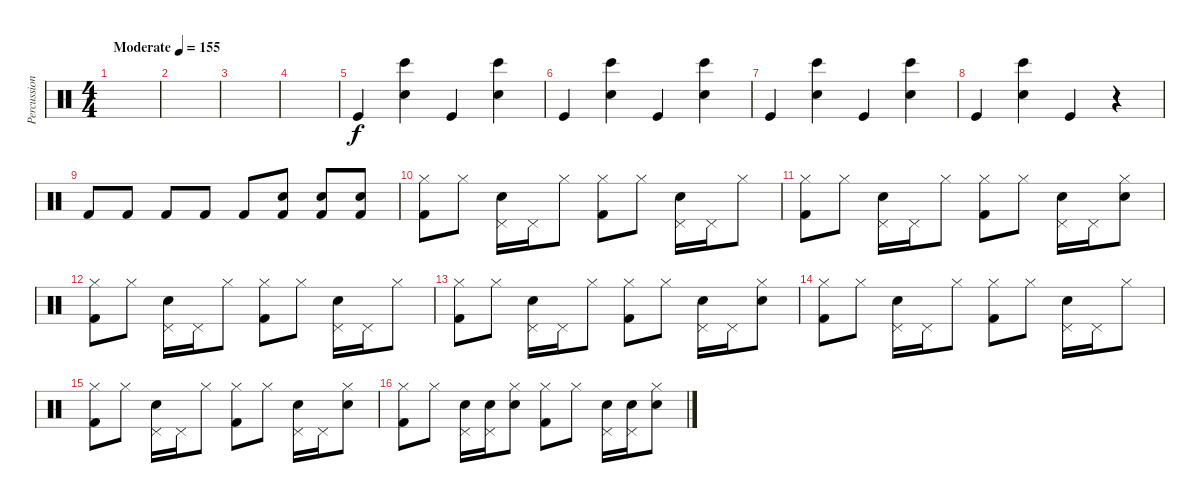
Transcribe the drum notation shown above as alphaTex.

\track ("Percussions" "Percussion") {instrument percussion}
\staff {score}
\articulation defaults
\ts (4 4)
\tempo (155 "Moderate")
\clef neutral
\ks c
|
|
|
|
"Kick (hit)".4 ("Bongo High (hit)" "Snare (hit) 2").4 "Kick (hit)".4 ("Bongo High (hit)" "Snare (hit) 2").4 |
"Kick (hit)".4 ("Bongo High (hit)" "Snare (hit) 2").4 "Kick (hit)".4 ("Bongo High (hit)" "Snare (hit) 2").4 |
"Kick (hit)".4 ("Bongo High (hit)" "Snare (hit) 2").4 "Kick (hit)".4 ("Bongo High (hit)" "Snare (hit) 2").4 |
"Kick (hit)".4 ("Bongo High (hit)" "Snare (hit) 2").4 "Kick (hit)".4 r.4 |
"Kick (hit) 2".8 "Kick (hit) 2".8 "Kick (hit) 2".8 "Kick (hit) 2".8 "Kick (hit) 2".8 ("Kick (hit) 2" "Snare (hit) 2").8 ("Kick (hit) 2" "Snare (hit) 2").8 ("Kick (hit) 2" "Snare (hit) 2").8 |
("Kick (hit) 2" "Hi-Hat (closed)").8 "Hi-Hat (closed)".8 ("Electric Snare (hit)" "Pedal Hi-Hat (hit)").16 "Pedal Hi-Hat (hit)".16 "Hi-Hat (closed)".8 ("Kick (hit) 2" "Hi-Hat (closed)").8 "Hi-Hat (closed)".8 ("Electric Snare (hit)" "Pedal Hi-Hat (hit)").16 "Pedal Hi-Hat (hit)".16 "Hi-Hat (closed)".8 |
("Kick (hit) 2" "Hi-Hat (closed)").8 "Hi-Hat (closed)".8 ("Electric Snare (hit)" "Pedal Hi-Hat (hit)").16 "Pedal Hi-Hat (hit)".16 "Hi-Hat (closed)".8 ("Kick (hit) 2" "Hi-Hat (closed)").8 "Hi-Hat (closed)".8 ("Electric Snare (hit)" "Pedal Hi-Hat (hit)").16 "Pedal Hi-Hat (hit)".16 ("Electric Snare (hit)" "Hi-Hat (closed)").8 |
("Kick (hit) 2" "Hi-Hat (closed)").8 "Hi-Hat (closed)".8 ("Electric Snare (hit)" "Pedal Hi-Hat (hit)").16 "Pedal Hi-Hat (hit)".16 "Hi-Hat (closed)".8 ("Kick (hit) 2" "Hi-Hat (closed)").8 "Hi-Hat (closed)".8 ("Electric Snare (hit)" "Pedal Hi-Hat (hit)").16 "Pedal Hi-Hat (hit)".16 "Hi-Hat (closed)".8 |
("Kick (hit) 2" "Hi-Hat (closed)").8 "Hi-Hat (closed)".8 ("Electric Snare (hit)" "Pedal Hi-Hat (hit)").16 "Pedal Hi-Hat (hit)".16 "Hi-Hat (closed)".8 ("Kick (hit) 2" "Hi-Hat (closed)").8 "Hi-Hat (closed)".8 ("Electric Snare (hit)" "Pedal Hi-Hat (hit)").16 "Pedal Hi-Hat (hit)".16 ("Electric Snare (hit)" "Hi-Hat (closed)").8 |
("Kick (hit) 2" "Hi-Hat (closed)").8 "Hi-Hat (closed)".8 ("Electric Snare (hit)" "Pedal Hi-Hat (hit)").16 "Pedal Hi-Hat (hit)".16 "Hi-Hat (closed)".8 ("Kick (hit) 2" "Hi-Hat (closed)").8 "Hi-Hat (closed)".8 ("Electric Snare (hit)" "Pedal Hi-Hat (hit)").16 "Pedal Hi-Hat (hit)".16 "Hi-Hat (closed)".8 |
("Kick (hit) 2" "Hi-Hat (closed)").8 "Hi-Hat (closed)".8 ("Electric Snare (hit)" "Pedal Hi-Hat (hit)").16 "Pedal Hi-Hat (hit)".16 "Hi-Hat (closed)".8 ("Kick (hit) 2" "Hi-Hat (closed)").8 "Hi-Hat (closed)".8 ("Electric Snare (hit)" "Pedal Hi-Hat (hit)").16 "Pedal Hi-Hat (hit)".16 ("Electric Snare (hit)" "Hi-Hat (closed)").8 |
("Kick (hit) 2" "Hi-Hat (closed)").8 "Hi-Hat (closed)".8 ("Electric Snare (hit)" "Pedal Hi-Hat (hit)").16 ("Electric Snare (hit)" "Pedal Hi-Hat (hit)").16 ("Electric Snare (hit)" "Hi-Hat (closed)").8 ("Kick (hit) 2" "Hi-Hat (closed)").8 "Hi-Hat (closed)".8 ("Electric Snare (hit)" "Pedal Hi-Hat (hit)").16 ("Electric Snare (hit)" "Pedal Hi-Hat (hit)").16 ("Electric Snare (hit)" "Hi-Hat (closed)").8
